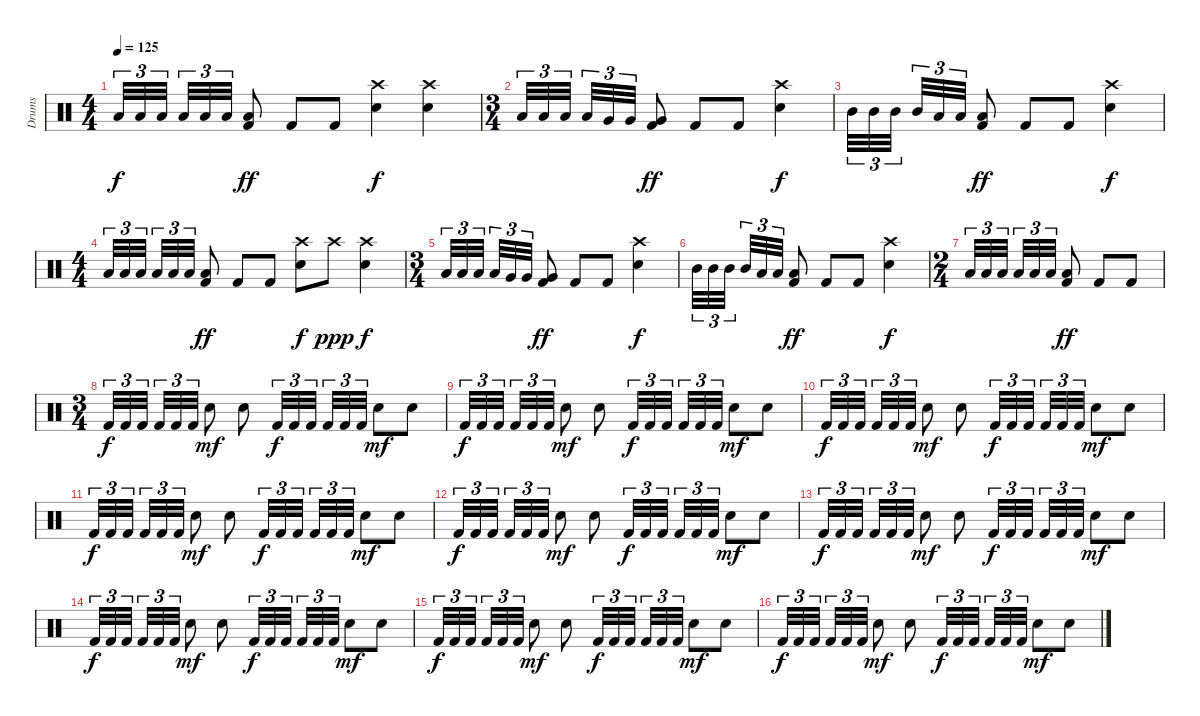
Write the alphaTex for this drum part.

\track ("Drums" "Drums") {instrument percussion}
\staff {score}
\articulation defaults
\ts (4 4)
\tempo 125
\clef neutral
\ks c "Low Tom (hit)".32{tu (3 2) dy f} "Low Tom (hit)".32{tu (3 2)} "Low Tom (hit)".32{tu (3 2) beam splitsecondary} "Low Tom (hit)".32{tu (3 2)} "Low Floor Tom (hit)".32{tu (3 2)} "Low Floor Tom (hit)".32{tu (3 2)}
("Low Floor Tom (hit)" "Kick (hit) 2").8{dy ff} "Kick (hit) 2".8 "Kick (hit) 2".8 ("Crash high (hit)" "Snare (hit) 2").4{dy f} ("Crash high (hit)" "Snare (hit) 2").4 |
\ts (3 4)
"Low Floor Tom (hit)".32{tu (3 2)} "Low Floor Tom (hit)".32{tu (3 2)} "Low Floor Tom (hit)".32{tu (3 2) beam splitsecondary} "Low Floor Tom (hit)".32{tu (3 2)} "Very Low Tom (hit)".32{tu (3 2)} "Very Low Tom (hit)".32{tu (3 2)} ("Very Low Tom (hit)" "Kick (hit) 2").8{dy ff} "Kick (hit) 2".8 "Kick (hit) 2".8 ("Crash high (hit)" "Snare (hit) 2").4{dy f} |
"Mid Tom (hit)".32{tu (3 2)} "Mid Tom (hit)".32{tu (3 2)} "Mid Tom (hit)".32{tu (3 2) beam splitsecondary} "Mid Tom (hit)".32{tu (3 2)} "Low Tom (hit)".32{tu (3 2)} "Low Tom (hit)".32{tu (3 2)} ("Low Tom (hit)" "Kick (hit) 2").8{dy ff} "Kick (hit) 2".8 "Kick (hit) 2".8 ("Crash high (hit)" "Snare (hit) 2").4{dy f} |
\ts (4 4)
"Low Tom (hit)".32{tu (3 2)} "Low Tom (hit)".32{tu (3 2)} "Low Tom (hit)".32{tu (3 2) beam splitsecondary} "Low Tom (hit)".32{tu (3 2)} "Low Floor Tom (hit)".32{tu (3 2)} "Low Floor Tom (hit)".32{tu (3 2)} ("Low Floor Tom (hit)" "Kick (hit) 2").8{dy ff} "Kick (hit) 2".8 "Kick (hit) 2".8 ("Crash high (hit)" "Snare (hit) 2").8{dy f} "Crash high (hit)".8{dy ppp} ("Crash high (hit)" "Snare (hit) 2").4{dy f} |
\ts (3 4)
"Low Floor Tom (hit)".32{tu (3 2)} "Low Floor Tom (hit)".32{tu (3 2)} "Low Floor Tom (hit)".32{tu (3 2) beam splitsecondary} "Low Floor Tom (hit)".32{tu (3 2)} "Very Low Tom (hit)".32{tu (3 2)} "Very Low Tom (hit)".32{tu (3 2)} ("Very Low Tom (hit)" "Kick (hit) 2").8{dy ff} "Kick (hit) 2".8 "Kick (hit) 2".8 ("Crash high (hit)" "Snare (hit) 2").4{dy f} |
"Mid Tom (hit)".32{tu (3 2)} "Mid Tom (hit)".32{tu (3 2)} "Mid Tom (hit)".32{tu (3 2) beam splitsecondary} "Mid Tom (hit)".32{tu (3 2)} "Low Tom (hit)".32{tu (3 2)} "Low Tom (hit)".32{tu (3 2)} ("Low Tom (hit)" "Kick (hit) 2").8{dy ff} "Kick (hit) 2".8 "Kick (hit) 2".8 ("Crash high (hit)" "Snare (hit) 2").4{dy f} |
\ts (2 4)
"Low Tom (hit)".32{tu (3 2)} "Low Tom (hit)".32{tu (3 2)} "Low Tom (hit)".32{tu (3 2) beam splitsecondary} "Low Tom (hit)".32{tu (3 2)} "Low Floor Tom (hit)".32{tu (3 2)} "Low Floor Tom (hit)".32{tu (3 2)} ("Low Floor Tom (hit)" "Kick (hit) 2").8{dy ff} "Kick (hit) 2".8 "Kick (hit) 2".8 |
\ts (3 4)
"Kick (hit) 2".32{tu (3 2) dy f} "Kick (hit) 2".32{tu (3 2)} "Kick (hit) 2".32{tu (3 2) beam splitsecondary} "Kick (hit) 2".32{tu (3 2)} "Kick (hit) 2".32{tu (3 2)} "Kick (hit) 2".32{tu (3 2)} "Snare (hit) 2".8{dy mf} "Snare (hit) 2".8 "Kick (hit) 2".32{tu (3 2) dy f} "Kick (hit) 2".32{tu (3 2)} "Kick (hit) 2".32{tu (3 2) beam splitsecondary} "Kick (hit) 2".32{tu (3 2)} "Kick (hit) 2".32{tu (3 2)} "Kick (hit) 2".32{tu (3 2)} "Snare (hit) 2".8{dy mf} "Snare (hit) 2".8 |
"Kick (hit) 2".32{tu (3 2) dy f volume 2} "Kick (hit) 2".32{tu (3 2)} "Kick (hit) 2".32{tu (3 2) beam splitsecondary} "Kick (hit) 2".32{tu (3 2)} "Kick (hit) 2".32{tu (3 2)} "Kick (hit) 2".32{tu (3 2)} "Snare (hit) 2".8{dy mf} "Snare (hit) 2".8 "Kick (hit) 2".32{tu (3 2) dy f} "Kick (hit) 2".32{tu (3 2)} "Kick (hit) 2".32{tu (3 2) beam splitsecondary} "Kick (hit) 2".32{tu (3 2)} "Kick (hit) 2".32{tu (3 2)} "Kick (hit) 2".32{tu (3 2)} "Snare (hit) 2".8{dy mf} "Snare (hit) 2".8 |
"Kick (hit) 2".32{tu (3 2) dy f} "Kick (hit) 2".32{tu (3 2)} "Kick (hit) 2".32{tu (3 2) beam splitsecondary} "Kick (hit) 2".32{tu (3 2)} "Kick (hit) 2".32{tu (3 2)} "Kick (hit) 2".32{tu (3 2)} "Snare (hit) 2".8{dy mf} "Snare (hit) 2".8 "Kick (hit) 2".32{tu (3 2) dy f} "Kick (hit) 2".32{tu (3 2)} "Kick (hit) 2".32{tu (3 2) beam splitsecondary} "Kick (hit) 2".32{tu (3 2)} "Kick (hit) 2".32{tu (3 2)} "Kick (hit) 2".32{tu (3 2)} "Snare (hit) 2".8{dy mf} "Snare (hit) 2".8 |
"Kick (hit) 2".32{tu (3 2) dy f} "Kick (hit) 2".32{tu (3 2)} "Kick (hit) 2".32{tu (3 2) beam splitsecondary} "Kick (hit) 2".32{tu (3 2)} "Kick (hit) 2".32{tu (3 2)} "Kick (hit) 2".32{tu (3 2)} "Snare (hit) 2".8{dy mf} "Snare (hit) 2".8 "Kick (hit) 2".32{tu (3 2) dy f} "Kick (hit) 2".32{tu (3 2)} "Kick (hit) 2".32{tu (3 2) beam splitsecondary} "Kick (hit) 2".32{tu (3 2)} "Kick (hit) 2".32{tu (3 2)} "Kick (hit) 2".32{tu (3 2)} "Snare (hit) 2".8{dy mf} "Snare (hit) 2".8 |
"Kick (hit) 2".32{tu (3 2) dy f volume 10} "Kick (hit) 2".32{tu (3 2)} "Kick (hit) 2".32{tu (3 2) beam splitsecondary} "Kick (hit) 2".32{tu (3 2)} "Kick (hit) 2".32{tu (3 2)} "Kick (hit) 2".32{tu (3 2)} "Snare (hit) 2".8{dy mf} "Snare (hit) 2".8 "Kick (hit) 2".32{tu (3 2) dy f} "Kick (hit) 2".32{tu (3 2)} "Kick (hit) 2".32{tu (3 2) beam splitsecondary} "Kick (hit) 2".32{tu (3 2)} "Kick (hit) 2".32{tu (3 2)} "Kick (hit) 2".32{tu (3 2)} "Snare (hit) 2".8{dy mf} "Snare (hit) 2".8 |
"Kick (hit) 2".32{tu (3 2) dy f} "Kick (hit) 2".32{tu (3 2)} "Kick (hit) 2".32{tu (3 2) beam splitsecondary} "Kick (hit) 2".32{tu (3 2)} "Kick (hit) 2".32{tu (3 2)} "Kick (hit) 2".32{tu (3 2)} "Snare (hit) 2".8{dy mf} "Snare (hit) 2".8 "Kick (hit) 2".32{tu (3 2) dy f} "Kick (hit) 2".32{tu (3 2)} "Kick (hit) 2".32{tu (3 2) beam splitsecondary} "Kick (hit) 2".32{tu (3 2)} "Kick (hit) 2".32{tu (3 2)} "Kick (hit) 2".32{tu (3 2)} "Snare (hit) 2".8{dy mf} "Snare (hit) 2".8 |
"Kick (hit) 2".32{tu (3 2) dy f} "Kick (hit) 2".32{tu (3 2)} "Kick (hit) 2".32{tu (3 2) beam splitsecondary} "Kick (hit) 2".32{tu (3 2)} "Kick (hit) 2".32{tu (3 2)} "Kick (hit) 2".32{tu (3 2)} "Snare (hit) 2".8{dy mf} "Snare (hit) 2".8 "Kick (hit) 2".32{tu (3 2) dy f} "Kick (hit) 2".32{tu (3 2)} "Kick (hit) 2".32{tu (3 2) beam splitsecondary} "Kick (hit) 2".32{tu (3 2)} "Kick (hit) 2".32{tu (3 2)} "Kick (hit) 2".32{tu (3 2)} "Snare (hit) 2".8{dy mf} "Snare (hit) 2".8 |
"Kick (hit) 2".32{tu (3 2) dy f volume 0} "Kick (hit) 2".32{tu (3 2)} "Kick (hit) 2".32{tu (3 2) beam splitsecondary} "Kick (hit) 2".32{tu (3 2)} "Kick (hit) 2".32{tu (3 2)} "Kick (hit) 2".32{tu (3 2)} "Snare (hit) 2".8{dy mf} "Snare (hit) 2".8 "Kick (hit) 2".32{tu (3 2) dy f} "Kick (hit) 2".32{tu (3 2)} "Kick (hit) 2".32{tu (3 2) beam splitsecondary} "Kick (hit) 2".32{tu (3 2)} "Kick (hit) 2".32{tu (3 2)} "Kick (hit) 2".32{tu (3 2)} "Snare (hit) 2".8{dy mf} "Snare (hit) 2".8 |
"Kick (hit) 2".32{tu (3 2) dy f} "Kick (hit) 2".32{tu (3 2)} "Kick (hit) 2".32{tu (3 2) beam splitsecondary} "Kick (hit) 2".32{tu (3 2)} "Kick (hit) 2".32{tu (3 2)} "Kick (hit) 2".32{tu (3 2)} "Snare (hit) 2".8{dy mf} "Snare (hit) 2".8 "Kick (hit) 2".32{tu (3 2) dy f} "Kick (hit) 2".32{tu (3 2)} "Kick (hit) 2".32{tu (3 2) beam splitsecondary} "Kick (hit) 2".32{tu (3 2)} "Kick (hit) 2".32{tu (3 2)} "Kick (hit) 2".32{tu (3 2)} "Snare (hit) 2".8{dy mf} "Snare (hit) 2".8
